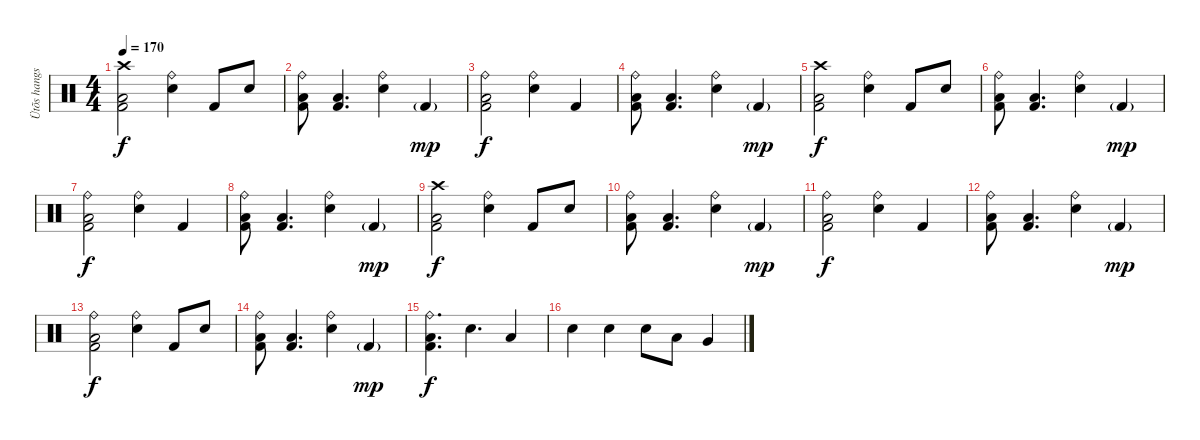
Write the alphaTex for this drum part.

\track ("Ütõs hangszer" "Ütõs hangs") {instrument percussion}
\staff {score}
\articulation defaults
\ts (4 4)
\section ("" "")
\tempo 170
\clef neutral
\ks c
("Crash high (hit)" "Kick (hit) 2" "Low Floor Tom (hit)").2{dy f} ("Ride (bell)" "Electric Snare (hit)").4 "Kick (hit) 2".8 "Electric Snare (hit)".8 |
("Ride (bell)" "Kick (hit) 2" "Low Floor Tom (hit)").8 ("Kick (hit) 2" "Low Floor Tom (hit)").4{d} ("Ride (bell)" "Electric Snare (hit)").4 "Kick (hit) 2"{g}.4{dy mp} |
("Ride (bell)" "Kick (hit) 2" "Low Floor Tom (hit)").2{dy f} ("Ride (bell)" "Electric Snare (hit)").4 "Kick (hit) 2".4 |
("Ride (bell)" "Kick (hit) 2" "Low Floor Tom (hit)").8 ("Kick (hit) 2" "Low Floor Tom (hit)").4{d} ("Ride (bell)" "Electric Snare (hit)").4 "Kick (hit) 2"{g}.4{dy mp} |
("Crash high (hit)" "Kick (hit) 2" "Low Floor Tom (hit)").2{dy f} ("Ride (bell)" "Electric Snare (hit)").4 "Kick (hit) 2".8 "Electric Snare (hit)".8 |
("Ride (bell)" "Kick (hit) 2" "Low Floor Tom (hit)").8 ("Kick (hit) 2" "Low Floor Tom (hit)").4{d} ("Ride (bell)" "Electric Snare (hit)").4 "Kick (hit) 2"{g}.4{dy mp} |
("Ride (bell)" "Kick (hit) 2" "Low Floor Tom (hit)").2{dy f} ("Ride (bell)" "Electric Snare (hit)").4 "Kick (hit) 2".4 |
("Ride (bell)" "Kick (hit) 2" "Low Floor Tom (hit)").8 ("Kick (hit) 2" "Low Floor Tom (hit)").4{d} ("Ride (bell)" "Electric Snare (hit)").4 "Kick (hit) 2"{g}.4{dy mp} |
("Crash high (hit)" "Kick (hit) 2" "Low Floor Tom (hit)").2{dy f} ("Ride (bell)" "Electric Snare (hit)").4 "Kick (hit) 2".8 "Electric Snare (hit)".8 |
("Ride (bell)" "Kick (hit) 2" "Low Floor Tom (hit)").8 ("Kick (hit) 2" "Low Floor Tom (hit)").4{d} ("Ride (bell)" "Electric Snare (hit)").4 "Kick (hit) 2"{g}.4{dy mp} |
("Ride (bell)" "Kick (hit) 2" "Low Floor Tom (hit)").2{dy f} ("Ride (bell)" "Electric Snare (hit)").4 "Kick (hit) 2".4 |
("Ride (bell)" "Kick (hit) 2" "Low Floor Tom (hit)").8 ("Kick (hit) 2" "Low Floor Tom (hit)").4{d} ("Ride (bell)" "Electric Snare (hit)").4 "Kick (hit) 2"{g}.4{dy mp} |
("Ride (bell)" "Kick (hit) 2" "Low Floor Tom (hit)").2{dy f} ("Ride (bell)" "Electric Snare (hit)").4 "Kick (hit) 2".8 "Electric Snare (hit)".8 |
("Ride (bell)" "Kick (hit) 2" "Low Floor Tom (hit)").8 ("Kick (hit) 2" "Low Floor Tom (hit)").4{d} ("Ride (bell)" "Electric Snare (hit)").4 "Kick (hit) 2"{g}.4{dy mp} |
("Ride (bell)" "Kick (hit) 2" "Low Floor Tom (hit)").4{d dy f} "Electric Snare (hit)".4{d} "Low Tom (hit)".4 |
"Electric Snare (hit)".4 "Electric Snare (hit)".4 "Electric Snare (hit)".8 "Low Tom (hit)".8 "Very Low Tom (hit)".4
